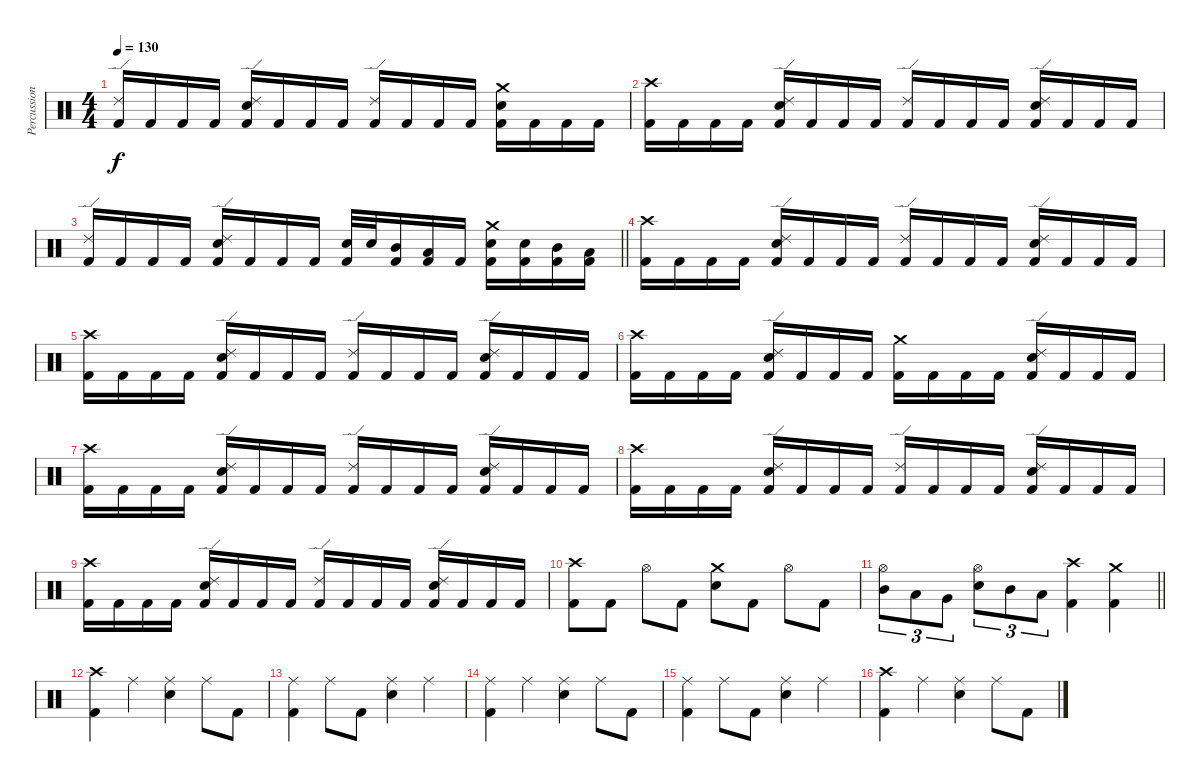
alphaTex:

\track ("Percussion" "Percussion") {instrument percussion}
\staff {score}
\articulation defaults
\ts (4 4)
\tempo 130
\clef neutral
\ks c
("Ride (edge) 2" "Kick (hit) 2").16{dy f} "Kick (hit) 2".16 "Kick (hit) 2".16 "Kick (hit) 2".16 ("Ride (edge) 2" "Electric Snare (hit)" "Kick (hit) 2").16 "Kick (hit) 2".16 "Kick (hit) 2".16 "Kick (hit) 2".16 ("Ride (edge) 2" "Kick (hit) 2").16 "Kick (hit) 2".16 "Kick (hit) 2".16 "Kick (hit) 2".16 ("Crash medium (hit)" "Electric Snare (hit)" "Kick (hit) 2").16 "Kick (hit) 2".16 "Kick (hit) 2".16 "Kick (hit) 2".16 |
("Crash high (hit)" "Kick (hit) 2").16 "Kick (hit) 2".16 "Kick (hit) 2".16 "Kick (hit) 2".16 ("Ride (edge) 2" "Electric Snare (hit)" "Kick (hit) 2").16 "Kick (hit) 2".16 "Kick (hit) 2".16 "Kick (hit) 2".16 ("Ride (edge) 2" "Kick (hit) 2").16 "Kick (hit) 2".16 "Kick (hit) 2".16 "Kick (hit) 2".16 ("Ride (edge) 2" "Electric Snare (hit)" "Kick (hit) 2").16 "Kick (hit) 2".16 "Kick (hit) 2".16 "Kick (hit) 2".16 |
\barLineRight lightlight
("Ride (edge) 2" "Kick (hit) 2").16 "Kick (hit) 2".16 "Kick (hit) 2".16 "Kick (hit) 2".16 ("Ride (edge) 2" "Electric Snare (hit)" "Kick (hit) 2").16 "Kick (hit) 2".16 "Kick (hit) 2".16 "Kick (hit) 2".16 ("Electric Snare (hit)" "Kick (hit) 2").32 "Electric Snare (hit)".32 ("Mid Tom (hit)" "Kick (hit) 2").16 ("Low Tom (hit)" "Kick (hit) 2").16 "Kick (hit) 2".16 ("Crash medium (hit)" "Electric Snare (hit)" "Kick (hit) 2").16 ("Electric Snare (hit)" "Kick (hit) 2").16 ("Mid Tom (hit)" "Kick (hit) 2").16 ("Low Tom (hit)" "Kick (hit) 2").16 |
("Crash high (hit)" "Kick (hit) 2").16 "Kick (hit) 2".16 "Kick (hit) 2".16 "Kick (hit) 2".16 ("Ride (edge) 2" "Electric Snare (hit)" "Kick (hit) 2").16 "Kick (hit) 2".16 "Kick (hit) 2".16 "Kick (hit) 2".16 ("Ride (edge) 2" "Kick (hit) 2").16 "Kick (hit) 2".16 "Kick (hit) 2".16 "Kick (hit) 2".16 ("Ride (edge) 2" "Electric Snare (hit)" "Kick (hit) 2").16 "Kick (hit) 2".16 "Kick (hit) 2".16 "Kick (hit) 2".16 |
("Crash high (hit)" "Kick (hit) 2").16 "Kick (hit) 2".16 "Kick (hit) 2".16 "Kick (hit) 2".16 ("Ride (edge) 2" "Electric Snare (hit)" "Kick (hit) 2").16 "Kick (hit) 2".16 "Kick (hit) 2".16 "Kick (hit) 2".16 ("Ride (edge) 2" "Kick (hit) 2").16 "Kick (hit) 2".16 "Kick (hit) 2".16 "Kick (hit) 2".16 ("Ride (edge) 2" "Electric Snare (hit)" "Kick (hit) 2").16 "Kick (hit) 2".16 "Kick (hit) 2".16 "Kick (hit) 2".16 |
("Crash high (hit)" "Kick (hit) 2").16 "Kick (hit) 2".16 "Kick (hit) 2".16 "Kick (hit) 2".16 ("Ride (edge) 2" "Electric Snare (hit)" "Kick (hit) 2").16 "Kick (hit) 2".16 "Kick (hit) 2".16 "Kick (hit) 2".16 ("Crash medium (hit)" "Kick (hit) 2").16 "Kick (hit) 2".16 "Kick (hit) 2".16 "Kick (hit) 2".16 ("Ride (edge) 2" "Electric Snare (hit)" "Kick (hit) 2").16 "Kick (hit) 2".16 "Kick (hit) 2".16 "Kick (hit) 2".16 |
("Crash high (hit)" "Kick (hit) 2").16 "Kick (hit) 2".16 "Kick (hit) 2".16 "Kick (hit) 2".16 ("Ride (edge) 2" "Electric Snare (hit)" "Kick (hit) 2").16 "Kick (hit) 2".16 "Kick (hit) 2".16 "Kick (hit) 2".16 ("Ride (edge) 2" "Kick (hit) 2").16 "Kick (hit) 2".16 "Kick (hit) 2".16 "Kick (hit) 2".16 ("Ride (edge) 2" "Electric Snare (hit)" "Kick (hit) 2").16 "Kick (hit) 2".16 "Kick (hit) 2".16 "Kick (hit) 2".16 |
("Crash high (hit)" "Kick (hit) 2").16 "Kick (hit) 2".16 "Kick (hit) 2".16 "Kick (hit) 2".16 ("Ride (edge) 2" "Electric Snare (hit)" "Kick (hit) 2").16 "Kick (hit) 2".16 "Kick (hit) 2".16 "Kick (hit) 2".16 ("Ride (edge) 2" "Kick (hit) 2").16 "Kick (hit) 2".16 "Kick (hit) 2".16 "Kick (hit) 2".16 ("Ride (edge) 2" "Electric Snare (hit)" "Kick (hit) 2").16 "Kick (hit) 2".16 "Kick (hit) 2".16 "Kick (hit) 2".16 |
("Crash high (hit)" "Kick (hit) 2").16 "Kick (hit) 2".16 "Kick (hit) 2".16 "Kick (hit) 2".16 ("Ride (edge) 2" "Electric Snare (hit)" "Kick (hit) 2").16 "Kick (hit) 2".16 "Kick (hit) 2".16 "Kick (hit) 2".16 ("Ride (edge) 2" "Kick (hit) 2").16 "Kick (hit) 2".16 "Kick (hit) 2".16 "Kick (hit) 2".16 ("Ride (edge) 2" "Electric Snare (hit)" "Kick (hit) 2").16 "Kick (hit) 2".16 "Kick (hit) 2".16 "Kick (hit) 2".16 |
("Crash high (hit)" "Kick (hit) 2").8 "Kick (hit) 2".8 "Hi-Hat (open)".8 "Kick (hit) 2".8 ("Crash medium (hit)" "Electric Snare (hit)").8 "Kick (hit) 2".8 "Hi-Hat (open)".8 "Kick (hit) 2".8 |
\barLineRight lightlight
("Hi-Hat (open)" "Mid Tom (hit)").8{tu (3 2)} "Low Tom (hit)".8{tu (3 2)} "Very Low Tom (hit)".8{tu (3 2)} ("Hi-Hat (open)" "Electric Snare (hit)").8{tu (3 2)} "Mid Tom (hit)".8{tu (3 2)} "Low Tom (hit)".8{tu (3 2)} ("Crash high (hit)" "Kick (hit) 2").4 ("Crash medium (hit)" "Kick (hit) 2").4 |
("Crash high (hit)" "Kick (hit) 2").4 "Ride (middle)".4 ("Ride (middle)" "Electric Snare (hit)").4 "Ride (middle)".8 "Kick (hit) 2".8 |
("Ride (middle)" "Kick (hit) 2").4 "Ride (middle)".8 "Kick (hit) 2".8 ("Ride (middle)" "Electric Snare (hit)").4 "Ride (middle)".4 |
("Ride (middle)" "Kick (hit) 2").4 "Ride (middle)".4 ("Ride (middle)" "Electric Snare (hit)").4 "Ride (middle)".8 "Kick (hit) 2".8 |
("Ride (middle)" "Kick (hit) 2").4 "Ride (middle)".8 "Kick (hit) 2".8 ("Ride (middle)" "Electric Snare (hit)").4 "Ride (middle)".4 |
("Crash high (hit)" "Kick (hit) 2").4 "Ride (middle)".4 ("Ride (middle)" "Electric Snare (hit)").4 "Ride (middle)".8 "Kick (hit) 2".8
